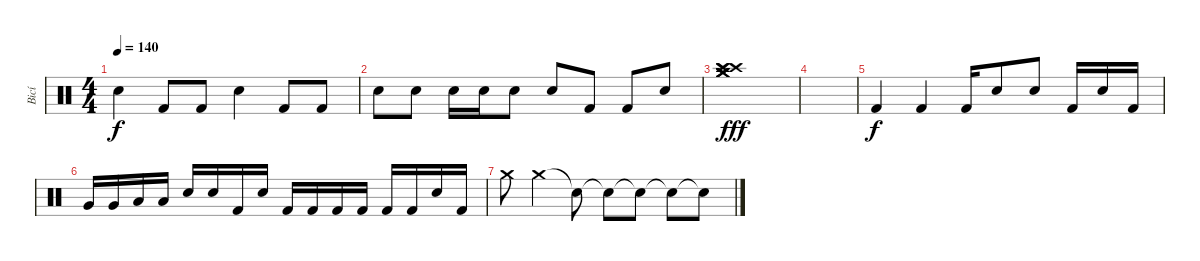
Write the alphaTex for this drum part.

\track ("Bicí" "Bicí") {instrument percussion}
\staff {score}
\articulation defaults
\ts (4 4)
\tempo 140
\clef neutral
\ks c "Electric Snare (hit)".4{dy f} "Kick (hit) 2".8 "Kick (hit) 2".8 "Electric Snare (hit)".4 "Kick (hit) 2".8 "Kick (hit) 2".8
|
"Electric Snare (hit)".8 "Electric Snare (hit)".8 "Electric Snare (hit)".16 "Electric Snare (hit)".16 "Electric Snare (hit)".8 "Electric Snare (hit)".8 "Kick (hit) 2".8 "Kick (hit) 2".8 "Electric Snare (hit)".8 |
("Crash high (hit)" "Crash high (hit)" "Crash medium (hit)" "Crash high (hit)" "Crash medium (hit)" "Crash medium (hit)").1{dy fff} |
|
"Kick (hit) 2".4{dy f} "Kick (hit) 2".4 "Kick (hit) 2".16 "Electric Snare (hit)".8 "Electric Snare (hit)".8 "Kick (hit) 2".16 "Electric Snare (hit)".16 "Kick (hit) 2".16 |
"Very Low Tom (hit)".16 "Very Low Tom (hit)".16 "Low Floor Tom (hit)".16 "Low Floor Tom (hit)".16 "Electric Snare (hit)".16 "Electric Snare (hit)".16 "Kick (hit) 2".16 "Electric Snare (hit)".16 "Kick (hit) 2".16 "Kick (hit) 2".16 "Kick (hit) 2".16 "Kick (hit) 2".16 "Kick (hit) 2".16 "Kick (hit) 2".16 "Electric Snare (hit)".16 "Kick (hit) 2".16 |
"Crash medium (hit)".8 "Crash medium (hit)".4 "Snare (hit)"{t}.8 "Snare (hit)"{t}.8 "Snare (hit)"{t}.8 "Snare (hit)"{t}.8 "Snare (hit)"{t}.8
